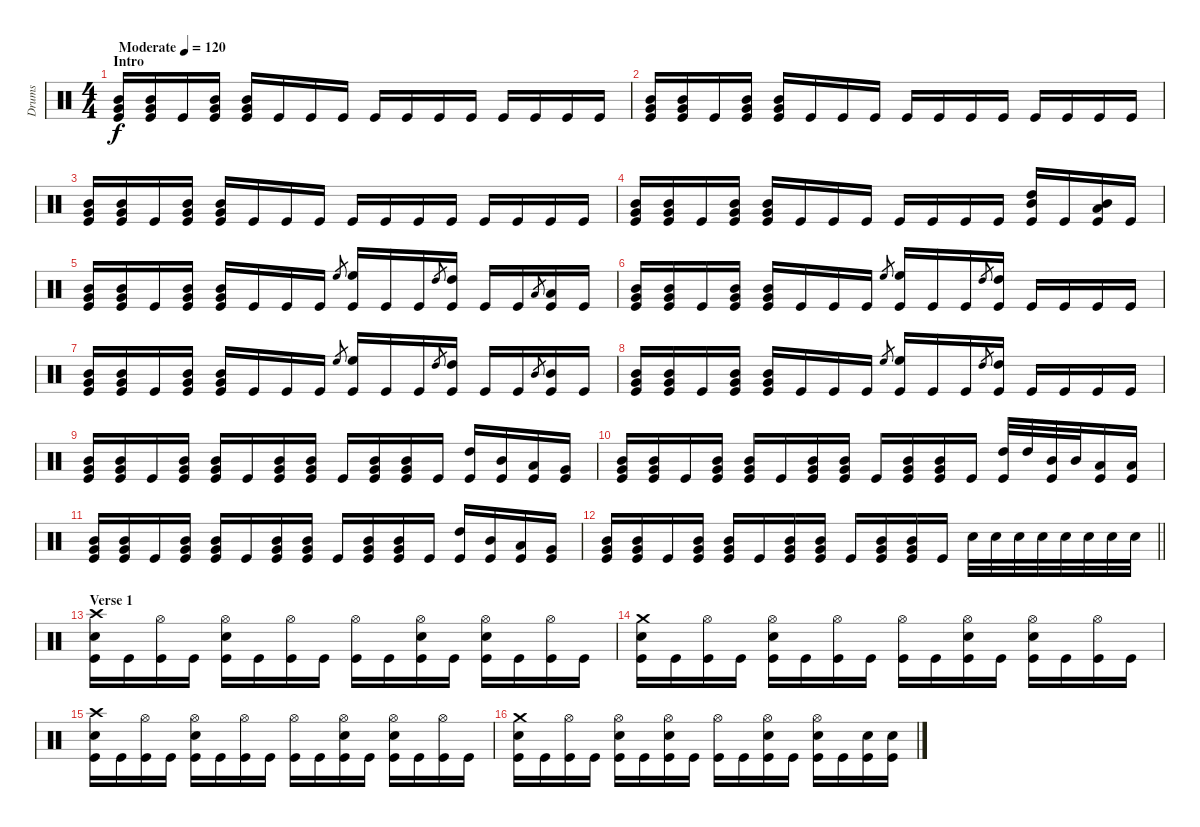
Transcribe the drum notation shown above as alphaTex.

\track ("Drums" "Drums") {instrument percussion}
\staff {score}
\articulation defaults
\ts (4 4)
\section ("" "Intro")
\tempo (120 "Moderate")
\clef neutral
\ks c
("Mid Tom (hit)" "Very Low Tom (hit)" "Kick (hit)").16{dy f} ("Mid Tom (hit)" "Very Low Tom (hit)" "Kick (hit)").16 "Kick (hit)".16 ("Mid Tom (hit)" "Very Low Tom (hit)" "Kick (hit)").16 ("Mid Tom (hit)" "Very Low Tom (hit)" "Kick (hit)").16 "Kick (hit)".16 "Kick (hit)".16 "Kick (hit)".16 "Kick (hit)".16 "Kick (hit)".16 "Kick (hit)".16 "Kick (hit)".16 "Kick (hit)".16 "Kick (hit)".16 "Kick (hit)".16 "Kick (hit)".16 |
("Mid Tom (hit)" "Very Low Tom (hit)" "Kick (hit)").16 ("Mid Tom (hit)" "Very Low Tom (hit)" "Kick (hit)").16 "Kick (hit)".16 ("Mid Tom (hit)" "Very Low Tom (hit)" "Kick (hit)").16 ("Mid Tom (hit)" "Very Low Tom (hit)" "Kick (hit)").16 "Kick (hit)".16 "Kick (hit)".16 "Kick (hit)".16 "Kick (hit)".16 "Kick (hit)".16 "Kick (hit)".16 "Kick (hit)".16 "Kick (hit)".16 "Kick (hit)".16 "Kick (hit)".16 "Kick (hit)".16 |
("Mid Tom (hit)" "Very Low Tom (hit)" "Kick (hit)").16 ("Mid Tom (hit)" "Very Low Tom (hit)" "Kick (hit)").16 "Kick (hit)".16 ("Mid Tom (hit)" "Very Low Tom (hit)" "Kick (hit)").16 ("Mid Tom (hit)" "Very Low Tom (hit)" "Kick (hit)").16 "Kick (hit)".16 "Kick (hit)".16 "Kick (hit)".16 "Kick (hit)".16 "Kick (hit)".16 "Kick (hit)".16 "Kick (hit)".16 "Kick (hit)".16 "Kick (hit)".16 "Kick (hit)".16 "Kick (hit)".16 |
("Mid Tom (hit)" "Very Low Tom (hit)" "Kick (hit)").16 ("Mid Tom (hit)" "Very Low Tom (hit)" "Kick (hit)").16 "Kick (hit)".16 ("Mid Tom (hit)" "Very Low Tom (hit)" "Kick (hit)").16 ("Mid Tom (hit)" "Very Low Tom (hit)" "Kick (hit)").16 "Kick (hit)".16 "Kick (hit)".16 "Kick (hit)".16 "Kick (hit)".16 "Kick (hit)".16 "Kick (hit)".16 "Kick (hit)".16 ("High Tom (hit)" "Mid Tom (hit)" "Kick (hit)").16 "Kick (hit)".16 ("Low Tom (hit)" "Mid Tom (hit)" "Kick (hit)").16 "Kick (hit)".16 |
("Mid Tom (hit)" "Very Low Tom (hit)" "Kick (hit)").16 ("Mid Tom (hit)" "Very Low Tom (hit)" "Kick (hit)").16 "Kick (hit)".16 ("Mid Tom (hit)" "Very Low Tom (hit)" "Kick (hit)").16 ("Mid Tom (hit)" "Very Low Tom (hit)" "Kick (hit)").16 "Kick (hit)".16 "Kick (hit)".16 "Kick (hit)".16 "High Floor Tom (hit)".8{gr} ("High Floor Tom (hit)" "Kick (hit)").16 "Kick (hit)".16 "Kick (hit)".16 "High Tom (hit)".8{gr} ("High Tom (hit)" "Kick (hit)").16 "Kick (hit)".16 "Kick (hit)".16 "Low Tom (hit)".8{gr} ("Low Tom (hit)" "Kick (hit)").16 "Kick (hit)".16 |
("Mid Tom (hit)" "Very Low Tom (hit)" "Kick (hit)").16 ("Mid Tom (hit)" "Very Low Tom (hit)" "Kick (hit)").16 "Kick (hit)".16 ("Mid Tom (hit)" "Very Low Tom (hit)" "Kick (hit)").16 ("Mid Tom (hit)" "Very Low Tom (hit)" "Kick (hit)").16 "Kick (hit)".16 "Kick (hit)".16 "Kick (hit)".16 "High Floor Tom (hit)".8{gr} ("High Floor Tom (hit)" "Kick (hit)").16 "Kick (hit)".16 "Kick (hit)".16 "High Tom (hit)".8{gr} ("High Tom (hit)" "Kick (hit)").16 "Kick (hit)".16 "Kick (hit)".16 "Kick (hit)".16 "Kick (hit)".16 |
("Mid Tom (hit)" "Very Low Tom (hit)" "Kick (hit)").16 ("Mid Tom (hit)" "Very Low Tom (hit)" "Kick (hit)").16 "Kick (hit)".16 ("Mid Tom (hit)" "Very Low Tom (hit)" "Kick (hit)").16 ("Mid Tom (hit)" "Very Low Tom (hit)" "Kick (hit)").16 "Kick (hit)".16 "Kick (hit)".16 "Kick (hit)".16 "High Floor Tom (hit)".8{gr} ("High Floor Tom (hit)" "Kick (hit)").16 "Kick (hit)".16 "Kick (hit)".16 "High Tom (hit)".8{gr} ("High Tom (hit)" "Kick (hit)").16 "Kick (hit)".16 "Kick (hit)".16 "Mid Tom (hit)".8{gr} ("Mid Tom (hit)" "Kick (hit)").16 "Kick (hit)".16 |
("Mid Tom (hit)" "Very Low Tom (hit)" "Kick (hit)").16 ("Mid Tom (hit)" "Very Low Tom (hit)" "Kick (hit)").16 "Kick (hit)".16 ("Mid Tom (hit)" "Very Low Tom (hit)" "Kick (hit)").16 ("Mid Tom (hit)" "Very Low Tom (hit)" "Kick (hit)").16 "Kick (hit)".16 "Kick (hit)".16 "Kick (hit)".16 "High Floor Tom (hit)".8{gr} ("High Floor Tom (hit)" "Kick (hit)").16 "Kick (hit)".16 "Kick (hit)".16 "High Tom (hit)".8{gr} ("High Tom (hit)" "Kick (hit)").16 "Kick (hit)".16 "Kick (hit)".16 "Kick (hit)".16 "Kick (hit)".16 |
("Mid Tom (hit)" "Very Low Tom (hit)" "Kick (hit)").16 ("Mid Tom (hit)" "Very Low Tom (hit)" "Kick (hit)").16 "Kick (hit)".16 ("Mid Tom (hit)" "Very Low Tom (hit)" "Kick (hit)").16 ("Mid Tom (hit)" "Very Low Tom (hit)" "Kick (hit)").16 "Kick (hit)".16 ("Mid Tom (hit)" "Very Low Tom (hit)" "Kick (hit)").16 ("Mid Tom (hit)" "Very Low Tom (hit)" "Kick (hit)").16 "Kick (hit)".16 ("Mid Tom (hit)" "Very Low Tom (hit)" "Kick (hit)").16 ("Mid Tom (hit)" "Very Low Tom (hit)" "Kick (hit)").16 "Kick (hit)".16 ("High Tom (hit)" "Kick (hit)").16 ("Mid Tom (hit)" "Kick (hit)").16 ("Low Tom (hit)" "Kick (hit)").16 ("Very Low Tom (hit)" "Kick (hit)").16 |
("Mid Tom (hit)" "Very Low Tom (hit)" "Kick (hit)").16 ("Mid Tom (hit)" "Very Low Tom (hit)" "Kick (hit)").16 "Kick (hit)".16 ("Mid Tom (hit)" "Very Low Tom (hit)" "Kick (hit)").16 ("Mid Tom (hit)" "Very Low Tom (hit)" "Kick (hit)").16 "Kick (hit)".16 ("Mid Tom (hit)" "Very Low Tom (hit)" "Kick (hit)").16 ("Mid Tom (hit)" "Very Low Tom (hit)" "Kick (hit)").16 "Kick (hit)".16 ("Mid Tom (hit)" "Very Low Tom (hit)" "Kick (hit)").16 ("Mid Tom (hit)" "Very Low Tom (hit)" "Kick (hit)").16 "Kick (hit)".16 ("High Tom (hit)" "Kick (hit)").32 "High Tom (hit)".32 ("Mid Tom (hit)" "Kick (hit)").32 "Mid Tom (hit)".32 ("Low Tom (hit)" "Kick (hit)").16 ("Low Tom (hit)" "Kick (hit)").16 |
("Mid Tom (hit)" "Very Low Tom (hit)" "Kick (hit)").16 ("Mid Tom (hit)" "Very Low Tom (hit)" "Kick (hit)").16 "Kick (hit)".16 ("Mid Tom (hit)" "Very Low Tom (hit)" "Kick (hit)").16 ("Mid Tom (hit)" "Very Low Tom (hit)" "Kick (hit)").16 "Kick (hit)".16 ("Mid Tom (hit)" "Very Low Tom (hit)" "Kick (hit)").16 ("Mid Tom (hit)" "Very Low Tom (hit)" "Kick (hit)").16 "Kick (hit)".16 ("Mid Tom (hit)" "Very Low Tom (hit)" "Kick (hit)").16 ("Mid Tom (hit)" "Very Low Tom (hit)" "Kick (hit)").16 "Kick (hit)".16 ("High Tom (hit)" "Kick (hit)").16 ("Mid Tom (hit)" "Kick (hit)").16 ("Low Tom (hit)" "Kick (hit)").16 ("Very Low Tom (hit)" "Kick (hit)").16 |
\barLineRight lightlight
("Mid Tom (hit)" "Very Low Tom (hit)" "Kick (hit)").16 ("Mid Tom (hit)" "Very Low Tom (hit)" "Kick (hit)").16 "Kick (hit)".16 ("Mid Tom (hit)" "Very Low Tom (hit)" "Kick (hit)").16 ("Mid Tom (hit)" "Very Low Tom (hit)" "Kick (hit)").16 "Kick (hit)".16 ("Mid Tom (hit)" "Very Low Tom (hit)" "Kick (hit)").16 ("Mid Tom (hit)" "Very Low Tom (hit)" "Kick (hit)").16 "Kick (hit)".16 ("Mid Tom (hit)" "Very Low Tom (hit)" "Kick (hit)").16 ("Mid Tom (hit)" "Very Low Tom (hit)" "Kick (hit)").16 "Kick (hit)".16 "Snare (hit) 2".32 "Snare (hit) 2".32 "Snare (hit) 2".32 "Snare (hit) 2".32 "Snare (hit) 2".32 "Snare (hit) 2".32 "Snare (hit) 2".32 "Snare (hit) 2".32 |
\section ("" "Verse 1")
("Kick (hit)" "Crash high (hit)" "Snare (hit) 2").16 "Kick (hit)".16 ("Kick (hit)" "Hi-Hat (open)").16 "Kick (hit)".16 ("Kick (hit)" "Hi-Hat (open)" "Snare (hit) 2").16 "Kick (hit)".16 ("Kick (hit)" "Hi-Hat (open)").16 "Kick (hit)".16 ("Kick (hit)" "Hi-Hat (open)").16 "Kick (hit)".16 ("Kick (hit)" "Hi-Hat (open)" "Snare (hit) 2").16 "Kick (hit)".16 ("Kick (hit)" "Hi-Hat (open)" "Snare (hit) 2").16 "Kick (hit)".16 ("Kick (hit)" "Hi-Hat (open)").16 "Kick (hit)".16 |
("Kick (hit)" "Crash medium (hit)" "Snare (hit) 2").16 "Kick (hit)".16 ("Kick (hit)" "Hi-Hat (open)").16 "Kick (hit)".16 ("Kick (hit)" "Hi-Hat (open)" "Snare (hit) 2").16 "Kick (hit)".16 ("Kick (hit)" "Hi-Hat (open)").16 "Kick (hit)".16 ("Kick (hit)" "Hi-Hat (open)").16 "Kick (hit)".16 ("Kick (hit)" "Hi-Hat (open)" "Snare (hit) 2").16 "Kick (hit)".16 ("Kick (hit)" "Hi-Hat (open)" "Snare (hit) 2").16 "Kick (hit)".16 ("Kick (hit)" "Hi-Hat (open)").16 "Kick (hit)".16 |
("Kick (hit)" "Crash high (hit)" "Snare (hit) 2").16 "Kick (hit)".16 ("Kick (hit)" "Hi-Hat (open)").16 "Kick (hit)".16 ("Kick (hit)" "Hi-Hat (open)" "Snare (hit) 2").16 "Kick (hit)".16 ("Kick (hit)" "Hi-Hat (open)").16 "Kick (hit)".16 ("Kick (hit)" "Hi-Hat (open)").16 "Kick (hit)".16 ("Kick (hit)" "Hi-Hat (open)" "Snare (hit) 2").16 "Kick (hit)".16 ("Kick (hit)" "Hi-Hat (open)" "Snare (hit) 2").16 "Kick (hit)".16 ("Kick (hit)" "Hi-Hat (open)").16 "Kick (hit)".16 |
("Kick (hit)" "Crash medium (hit)" "Snare (hit) 2").16 "Kick (hit)".16 ("Kick (hit)" "Hi-Hat (open)").16 "Kick (hit)".16 ("Kick (hit)" "Hi-Hat (open)" "Snare (hit) 2").16 "Kick (hit)".16 ("Kick (hit)" "Hi-Hat (open)" "Snare (hit) 2").16 "Kick (hit)".16 ("Kick (hit)" "Hi-Hat (open)").16 "Kick (hit)".16 ("Kick (hit)" "Hi-Hat (open)" "Snare (hit) 2").16 "Kick (hit)".16 ("Kick (hit)" "Hi-Hat (open)" "Snare (hit) 2").16 "Kick (hit)".16 ("Kick (hit)" "Snare (hit) 2").16 ("Kick (hit)" "Snare (hit) 2").16
